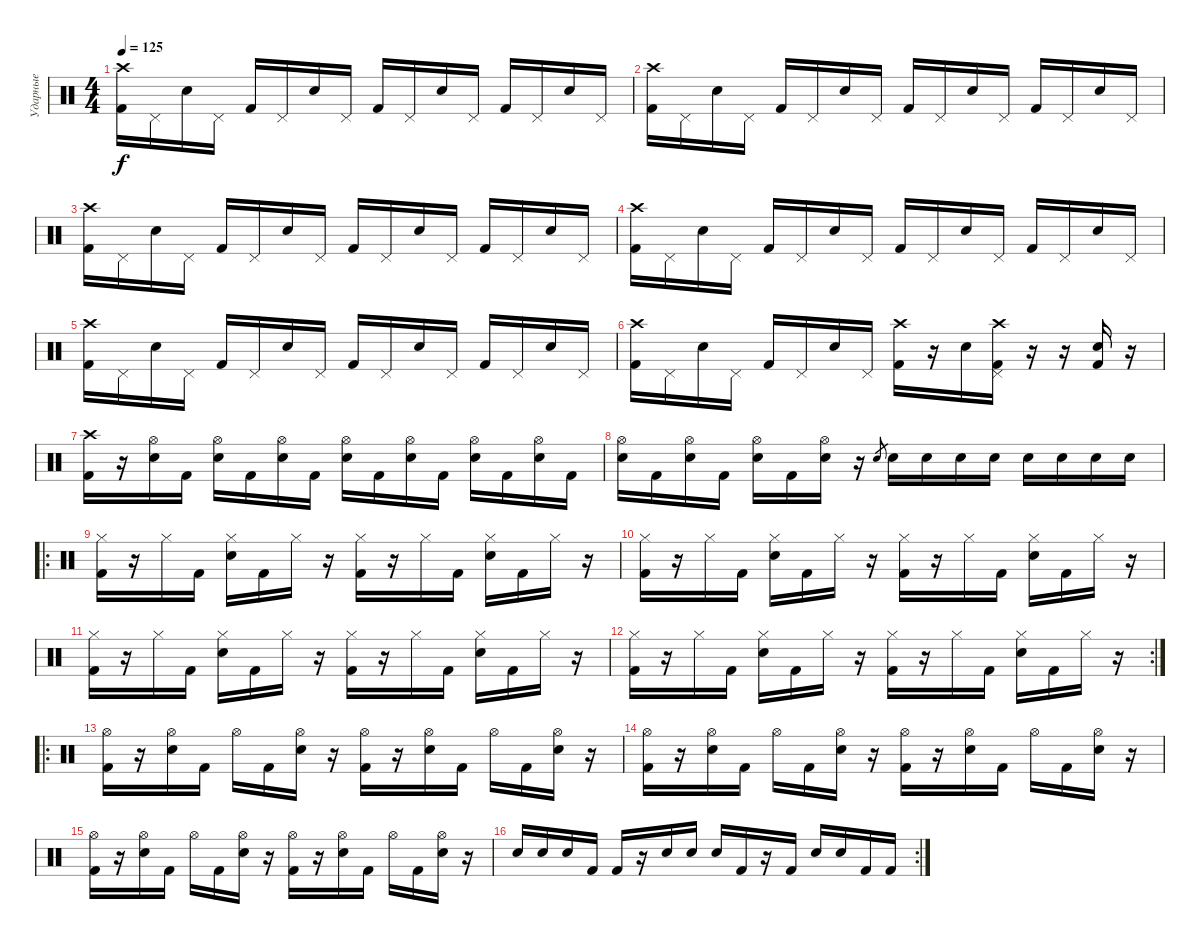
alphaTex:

\track ("Ударные" "Ударные") {instrument percussion}
\staff {score}
\articulation defaults
\ts (4 4)
\tempo 125
\clef neutral
\ks c
("Crash high (hit)" "Kick (hit) 2").16{dy f} "Pedal Hi-Hat (hit)".16 "Electric Snare (hit)".16 "Pedal Hi-Hat (hit)".16 "Kick (hit) 2".16 "Pedal Hi-Hat (hit)".16 "Electric Snare (hit)".16 "Pedal Hi-Hat (hit)".16 "Kick (hit) 2".16 "Pedal Hi-Hat (hit)".16 "Electric Snare (hit)".16 "Pedal Hi-Hat (hit)".16 "Kick (hit) 2".16 "Pedal Hi-Hat (hit)".16 "Electric Snare (hit)".16 "Pedal Hi-Hat (hit)".16 |
("Crash high (hit)" "Kick (hit) 2").16 "Pedal Hi-Hat (hit)".16 "Electric Snare (hit)".16 "Pedal Hi-Hat (hit)".16 "Kick (hit) 2".16 "Pedal Hi-Hat (hit)".16 "Electric Snare (hit)".16 "Pedal Hi-Hat (hit)".16 "Kick (hit) 2".16 "Pedal Hi-Hat (hit)".16 "Electric Snare (hit)".16 "Pedal Hi-Hat (hit)".16 "Kick (hit) 2".16 "Pedal Hi-Hat (hit)".16 "Electric Snare (hit)".16 "Pedal Hi-Hat (hit)".16 |
("Crash high (hit)" "Kick (hit) 2").16 "Pedal Hi-Hat (hit)".16 "Electric Snare (hit)".16 "Pedal Hi-Hat (hit)".16 "Kick (hit) 2".16 "Pedal Hi-Hat (hit)".16 "Electric Snare (hit)".16 "Pedal Hi-Hat (hit)".16 "Kick (hit) 2".16 "Pedal Hi-Hat (hit)".16 "Electric Snare (hit)".16 "Pedal Hi-Hat (hit)".16 "Kick (hit) 2".16 "Pedal Hi-Hat (hit)".16 "Electric Snare (hit)".16 "Pedal Hi-Hat (hit)".16 |
("Crash high (hit)" "Kick (hit) 2").16 "Pedal Hi-Hat (hit)".16 "Electric Snare (hit)".16 "Pedal Hi-Hat (hit)".16 "Kick (hit) 2".16 "Pedal Hi-Hat (hit)".16 "Electric Snare (hit)".16 "Pedal Hi-Hat (hit)".16 "Kick (hit) 2".16 "Pedal Hi-Hat (hit)".16 "Electric Snare (hit)".16 "Pedal Hi-Hat (hit)".16 "Kick (hit) 2".16 "Pedal Hi-Hat (hit)".16 "Electric Snare (hit)".16 "Pedal Hi-Hat (hit)".16 |
("Crash high (hit)" "Kick (hit) 2").16 "Pedal Hi-Hat (hit)".16 "Electric Snare (hit)".16 "Pedal Hi-Hat (hit)".16 "Kick (hit) 2".16 "Pedal Hi-Hat (hit)".16 "Electric Snare (hit)".16 "Pedal Hi-Hat (hit)".16 "Kick (hit) 2".16 "Pedal Hi-Hat (hit)".16 "Electric Snare (hit)".16 "Pedal Hi-Hat (hit)".16 "Kick (hit) 2".16 "Pedal Hi-Hat (hit)".16 "Electric Snare (hit)".16 "Pedal Hi-Hat (hit)".16 |
("Crash high (hit)" "Kick (hit) 2").16 "Pedal Hi-Hat (hit)".16 "Electric Snare (hit)".16 "Pedal Hi-Hat (hit)".16 "Kick (hit) 2".16 "Pedal Hi-Hat (hit)".16 "Electric Snare (hit)".16 "Pedal Hi-Hat (hit)".16 ("Crash high (hit)" "Kick (hit) 2").16 r.16 "Electric Snare (hit)".16 ("Crash high (hit)" "Pedal Hi-Hat (hit)" "Kick (hit) 2").16 r.16 r.16 ("Electric Snare (hit)" "Kick (hit) 2").16 r.16 |
("Crash high (hit)" "Kick (hit) 2").16 r.16 ("Hi-Hat (open)" "Electric Snare (hit)").16 "Kick (hit) 2".16 ("Hi-Hat (open)" "Electric Snare (hit)").16 "Kick (hit) 2".16 ("Hi-Hat (open)" "Electric Snare (hit)").16 "Kick (hit) 2".16 ("Hi-Hat (open)" "Electric Snare (hit)").16 "Kick (hit) 2".16 ("Hi-Hat (open)" "Electric Snare (hit)").16 "Kick (hit) 2".16 ("Hi-Hat (open)" "Electric Snare (hit)").16 "Kick (hit) 2".16 ("Hi-Hat (open)" "Electric Snare (hit)").16 "Kick (hit) 2".16 |
("Hi-Hat (open)" "Electric Snare (hit)").16 "Kick (hit) 2".16 ("Hi-Hat (open)" "Electric Snare (hit)").16 "Kick (hit) 2".16 ("Hi-Hat (open)" "Electric Snare (hit)").16 "Kick (hit) 2".16 ("Hi-Hat (open)" "Electric Snare (hit)").16 r.16 "Electric Snare (hit)".8{gr} "Electric Snare (hit)".16 "Electric Snare (hit)".16 "Electric Snare (hit)".16 "Electric Snare (hit)".16 "Electric Snare (hit)".16 "Electric Snare (hit)".16 "Electric Snare (hit)".16 "Electric Snare (hit)".16 |
\ro
("Hi-Hat (closed)" "Kick (hit) 2").16 r.16 "Hi-Hat (closed)".16 "Kick (hit) 2".16 ("Hi-Hat (closed)" "Electric Snare (hit)").16 "Kick (hit) 2".16 "Hi-Hat (closed)".16 r.16 ("Hi-Hat (closed)" "Kick (hit) 2").16 r.16 "Hi-Hat (closed)".16 "Kick (hit) 2".16 ("Hi-Hat (closed)" "Electric Snare (hit)").16 "Kick (hit) 2".16 "Hi-Hat (closed)".16 r.16 |
("Hi-Hat (closed)" "Kick (hit) 2").16 r.16 "Hi-Hat (closed)".16 "Kick (hit) 2".16 ("Hi-Hat (closed)" "Electric Snare (hit)").16 "Kick (hit) 2".16 "Hi-Hat (closed)".16 r.16 ("Hi-Hat (closed)" "Kick (hit) 2").16 r.16 "Hi-Hat (closed)".16 "Kick (hit) 2".16 ("Hi-Hat (closed)" "Electric Snare (hit)").16 "Kick (hit) 2".16 "Hi-Hat (closed)".16 r.16 |
("Hi-Hat (closed)" "Kick (hit) 2").16 r.16 "Hi-Hat (closed)".16 "Kick (hit) 2".16 ("Hi-Hat (closed)" "Electric Snare (hit)").16 "Kick (hit) 2".16 "Hi-Hat (closed)".16 r.16 ("Hi-Hat (closed)" "Kick (hit) 2").16 r.16 "Hi-Hat (closed)".16 "Kick (hit) 2".16 ("Hi-Hat (closed)" "Electric Snare (hit)").16 "Kick (hit) 2".16 "Hi-Hat (closed)".16 r.16 |
\rc 2
("Hi-Hat (closed)" "Kick (hit) 2").16 r.16 "Hi-Hat (closed)".16 "Kick (hit) 2".16 ("Hi-Hat (closed)" "Electric Snare (hit)").16 "Kick (hit) 2".16 "Hi-Hat (closed)".16 r.16 ("Hi-Hat (closed)" "Kick (hit) 2").16 r.16 "Hi-Hat (closed)".16 "Kick (hit) 2".16 ("Hi-Hat (closed)" "Electric Snare (hit)").16 "Kick (hit) 2".16 "Hi-Hat (closed)".16 r.16 |
\ro
("Hi-Hat (open)" "Kick (hit) 2").16 r.16 ("Hi-Hat (open)" "Electric Snare (hit)").16 "Kick (hit) 2".16 "Hi-Hat (open)".16 "Kick (hit) 2".16 ("Hi-Hat (open)" "Electric Snare (hit)").16 r.16 ("Hi-Hat (open)" "Kick (hit) 2").16 r.16 ("Hi-Hat (open)" "Electric Snare (hit)").16 "Kick (hit) 2".16 "Hi-Hat (open)".16 "Kick (hit) 2".16 ("Hi-Hat (open)" "Electric Snare (hit)").16 r.16 |
("Hi-Hat (open)" "Kick (hit) 2").16 r.16 ("Hi-Hat (open)" "Electric Snare (hit)").16 "Kick (hit) 2".16 "Hi-Hat (open)".16 "Kick (hit) 2".16 ("Hi-Hat (open)" "Electric Snare (hit)").16 r.16 ("Hi-Hat (open)" "Kick (hit) 2").16 r.16 ("Hi-Hat (open)" "Electric Snare (hit)").16 "Kick (hit) 2".16 "Hi-Hat (open)".16 "Kick (hit) 2".16 ("Hi-Hat (open)" "Electric Snare (hit)").16 r.16 |
("Hi-Hat (open)" "Kick (hit) 2").16 r.16 ("Hi-Hat (open)" "Electric Snare (hit)").16 "Kick (hit) 2".16 "Hi-Hat (open)".16 "Kick (hit) 2".16 ("Hi-Hat (open)" "Electric Snare (hit)").16 r.16 ("Hi-Hat (open)" "Kick (hit) 2").16 r.16 ("Hi-Hat (open)" "Electric Snare (hit)").16 "Kick (hit) 2".16 "Hi-Hat (open)".16 "Kick (hit) 2".16 ("Hi-Hat (open)" "Electric Snare (hit)").16 r.16 |
\rc 2 "Electric Snare (hit)".16 "Electric Snare (hit)".16 "Electric Snare (hit)".16 "Kick (hit) 2".16 "Kick (hit) 2".16
r.16 "Electric Snare (hit)".16 "Electric Snare (hit)".16 "Electric Snare (hit)".16 "Kick (hit) 2".16 r.16 "Kick (hit) 2".16 "Electric Snare (hit)".16 "Electric Snare (hit)".16 "Kick (hit) 2".16 "Kick (hit) 2".16
